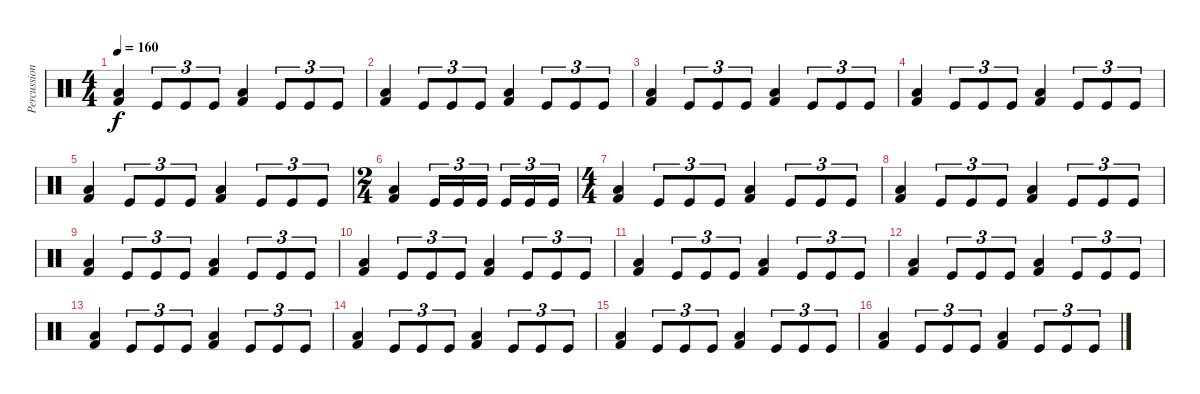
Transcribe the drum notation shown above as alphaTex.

\track ("Percussions" "Percussion") {instrument percussion}
\staff {score}
\articulation defaults
\ts (4 4)
\tempo 160
\clef neutral
\ks c
("Kick (hit) 2" "Low Floor Tom (hit)").4{dy f} "Kick (hit)".8{tu (3 2)} "Kick (hit)".8{tu (3 2)} "Kick (hit)".8{tu (3 2)} ("Kick (hit) 2" "Low Floor Tom (hit)").4 "Kick (hit)".8{tu (3 2)} "Kick (hit)".8{tu (3 2)} "Kick (hit)".8{tu (3 2)} |
("Kick (hit) 2" "Low Floor Tom (hit)").4 "Kick (hit)".8{tu (3 2)} "Kick (hit)".8{tu (3 2)} "Kick (hit)".8{tu (3 2)} ("Kick (hit) 2" "Low Floor Tom (hit)").4 "Kick (hit)".8{tu (3 2)} "Kick (hit)".8{tu (3 2)} "Kick (hit)".8{tu (3 2)} |
("Kick (hit) 2" "Low Floor Tom (hit)").4 "Kick (hit)".8{tu (3 2)} "Kick (hit)".8{tu (3 2)} "Kick (hit)".8{tu (3 2)} ("Kick (hit) 2" "Low Floor Tom (hit)").4 "Kick (hit)".8{tu (3 2)} "Kick (hit)".8{tu (3 2)} "Kick (hit)".8{tu (3 2)} |
("Kick (hit) 2" "Low Floor Tom (hit)").4 "Kick (hit)".8{tu (3 2)} "Kick (hit)".8{tu (3 2)} "Kick (hit)".8{tu (3 2)} ("Kick (hit) 2" "Low Floor Tom (hit)").4 "Kick (hit)".8{tu (3 2)} "Kick (hit)".8{tu (3 2)} "Kick (hit)".8{tu (3 2)} |
("Kick (hit) 2" "Low Floor Tom (hit)").4 "Kick (hit)".8{tu (3 2)} "Kick (hit)".8{tu (3 2)} "Kick (hit)".8{tu (3 2)} ("Kick (hit) 2" "Low Floor Tom (hit)").4 "Kick (hit)".8{tu (3 2)} "Kick (hit)".8{tu (3 2)} "Kick (hit)".8{tu (3 2)} |
\ts (2 4)
("Kick (hit) 2" "Low Floor Tom (hit)").4 "Kick (hit)".16{tu (3 2)} "Kick (hit)".16{tu (3 2)} "Kick (hit)".16{tu (3 2)} "Kick (hit)".16{tu (3 2)} "Kick (hit)".16{tu (3 2)} "Kick (hit)".16{tu (3 2)} |
\ts (4 4)
("Kick (hit) 2" "Low Floor Tom (hit)").4 "Kick (hit)".8{tu (3 2)} "Kick (hit)".8{tu (3 2)} "Kick (hit)".8{tu (3 2)} ("Kick (hit) 2" "Low Floor Tom (hit)").4 "Kick (hit)".8{tu (3 2)} "Kick (hit)".8{tu (3 2)} "Kick (hit)".8{tu (3 2)} |
("Kick (hit) 2" "Low Floor Tom (hit)").4 "Kick (hit)".8{tu (3 2)} "Kick (hit)".8{tu (3 2)} "Kick (hit)".8{tu (3 2)} ("Kick (hit) 2" "Low Floor Tom (hit)").4 "Kick (hit)".8{tu (3 2)} "Kick (hit)".8{tu (3 2)} "Kick (hit)".8{tu (3 2)} |
("Kick (hit) 2" "Low Floor Tom (hit)").4 "Kick (hit)".8{tu (3 2)} "Kick (hit)".8{tu (3 2)} "Kick (hit)".8{tu (3 2)} ("Kick (hit) 2" "Low Floor Tom (hit)").4 "Kick (hit)".8{tu (3 2)} "Kick (hit)".8{tu (3 2)} "Kick (hit)".8{tu (3 2)} |
("Kick (hit) 2" "Low Floor Tom (hit)").4 "Kick (hit)".8{tu (3 2)} "Kick (hit)".8{tu (3 2)} "Kick (hit)".8{tu (3 2)} ("Kick (hit) 2" "Low Floor Tom (hit)").4 "Kick (hit)".8{tu (3 2)} "Kick (hit)".8{tu (3 2)} "Kick (hit)".8{tu (3 2)} |
("Kick (hit) 2" "Low Floor Tom (hit)").4 "Kick (hit)".8{tu (3 2)} "Kick (hit)".8{tu (3 2)} "Kick (hit)".8{tu (3 2)} ("Kick (hit) 2" "Low Floor Tom (hit)").4 "Kick (hit)".8{tu (3 2)} "Kick (hit)".8{tu (3 2)} "Kick (hit)".8{tu (3 2)} |
("Kick (hit) 2" "Low Floor Tom (hit)").4 "Kick (hit)".8{tu (3 2)} "Kick (hit)".8{tu (3 2)} "Kick (hit)".8{tu (3 2)} ("Kick (hit) 2" "Low Floor Tom (hit)").4 "Kick (hit)".8{tu (3 2)} "Kick (hit)".8{tu (3 2)} "Kick (hit)".8{tu (3 2)} |
("Kick (hit) 2" "Low Floor Tom (hit)").4 "Kick (hit)".8{tu (3 2)} "Kick (hit)".8{tu (3 2)} "Kick (hit)".8{tu (3 2)} ("Kick (hit) 2" "Low Floor Tom (hit)").4 "Kick (hit)".8{tu (3 2)} "Kick (hit)".8{tu (3 2)} "Kick (hit)".8{tu (3 2)} |
("Kick (hit) 2" "Low Floor Tom (hit)").4 "Kick (hit)".8{tu (3 2)} "Kick (hit)".8{tu (3 2)} "Kick (hit)".8{tu (3 2)} ("Kick (hit) 2" "Low Floor Tom (hit)").4 "Kick (hit)".8{tu (3 2)} "Kick (hit)".8{tu (3 2)} "Kick (hit)".8{tu (3 2)} |
("Kick (hit) 2" "Low Floor Tom (hit)").4 "Kick (hit)".8{tu (3 2)} "Kick (hit)".8{tu (3 2)} "Kick (hit)".8{tu (3 2)} ("Kick (hit) 2" "Low Floor Tom (hit)").4 "Kick (hit)".8{tu (3 2)} "Kick (hit)".8{tu (3 2)} "Kick (hit)".8{tu (3 2)} |
("Kick (hit) 2" "Low Floor Tom (hit)").4 "Kick (hit)".8{tu (3 2)} "Kick (hit)".8{tu (3 2)} "Kick (hit)".8{tu (3 2)} ("Kick (hit) 2" "Low Floor Tom (hit)").4 "Kick (hit)".8{tu (3 2)} "Kick (hit)".8{tu (3 2)} "Kick (hit)".8{tu (3 2)}
